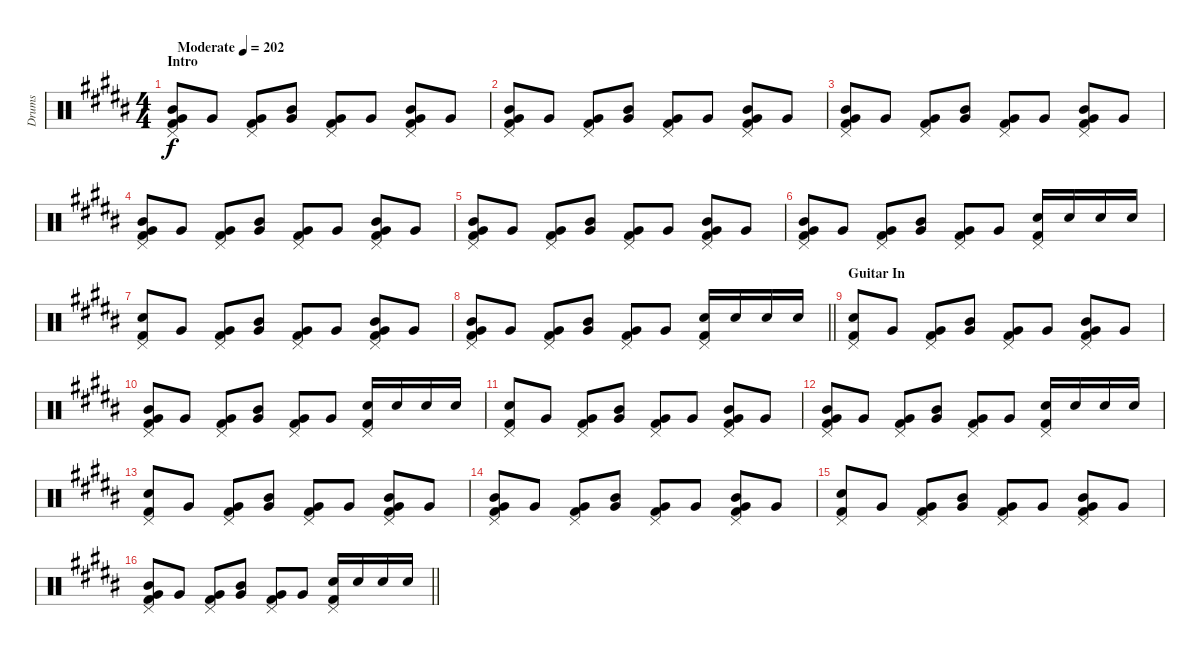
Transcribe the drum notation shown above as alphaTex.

\track ("Drums" "Drums") {instrument percussion}
\staff {score}
\articulation defaults
\ts (4 4)
\section ("" "Intro")
\tempo (202 "Moderate")
\clef neutral
\ks g#minor
("Pedal Hi-Hat (hit)" "Mid Tom (hit)" "Very Low Tom (hit)" "Kick (hit) 2").8{dy f} "Very Low Tom (hit)".8 ("Pedal Hi-Hat (hit)" "Very Low Tom (hit)" "Kick (hit) 2").8 ("Mid Tom (hit)" "Very Low Tom (hit)").8 ("Pedal Hi-Hat (hit)" "Very Low Tom (hit)" "Kick (hit) 2").8 "Very Low Tom (hit)".8 ("Pedal Hi-Hat (hit)" "Mid Tom (hit)" "Very Low Tom (hit)" "Kick (hit) 2").8 "Very Low Tom (hit)".8 |
("Pedal Hi-Hat (hit)" "Mid Tom (hit)" "Very Low Tom (hit)" "Kick (hit) 2").8 "Very Low Tom (hit)".8 ("Pedal Hi-Hat (hit)" "Very Low Tom (hit)" "Kick (hit) 2").8 ("Mid Tom (hit)" "Very Low Tom (hit)").8 ("Pedal Hi-Hat (hit)" "Very Low Tom (hit)" "Kick (hit) 2").8 "Very Low Tom (hit)".8 ("Pedal Hi-Hat (hit)" "Mid Tom (hit)" "Very Low Tom (hit)" "Kick (hit) 2").8 "Very Low Tom (hit)".8 |
("Pedal Hi-Hat (hit)" "Mid Tom (hit)" "Very Low Tom (hit)" "Kick (hit) 2").8 "Very Low Tom (hit)".8 ("Pedal Hi-Hat (hit)" "Very Low Tom (hit)" "Kick (hit) 2").8 ("Mid Tom (hit)" "Very Low Tom (hit)").8 ("Pedal Hi-Hat (hit)" "Very Low Tom (hit)" "Kick (hit) 2").8 "Very Low Tom (hit)".8 ("Pedal Hi-Hat (hit)" "Mid Tom (hit)" "Very Low Tom (hit)" "Kick (hit) 2").8 "Very Low Tom (hit)".8 |
("Pedal Hi-Hat (hit)" "Mid Tom (hit)" "Very Low Tom (hit)" "Kick (hit) 2").8 "Very Low Tom (hit)".8 ("Pedal Hi-Hat (hit)" "Very Low Tom (hit)" "Kick (hit) 2").8 ("Mid Tom (hit)" "Very Low Tom (hit)").8 ("Pedal Hi-Hat (hit)" "Very Low Tom (hit)" "Kick (hit) 2").8 "Very Low Tom (hit)".8 ("Pedal Hi-Hat (hit)" "Mid Tom (hit)" "Very Low Tom (hit)" "Kick (hit) 2").8 "Very Low Tom (hit)".8 |
("Pedal Hi-Hat (hit)" "Mid Tom (hit)" "Very Low Tom (hit)" "Kick (hit) 2").8 "Very Low Tom (hit)".8 ("Pedal Hi-Hat (hit)" "Very Low Tom (hit)" "Kick (hit) 2").8 ("Mid Tom (hit)" "Very Low Tom (hit)").8 ("Pedal Hi-Hat (hit)" "Very Low Tom (hit)" "Kick (hit) 2").8 "Very Low Tom (hit)".8 ("Pedal Hi-Hat (hit)" "Mid Tom (hit)" "Very Low Tom (hit)" "Kick (hit) 2").8 "Very Low Tom (hit)".8 |
("Pedal Hi-Hat (hit)" "Mid Tom (hit)" "Very Low Tom (hit)" "Kick (hit) 2").8 "Very Low Tom (hit)".8 ("Pedal Hi-Hat (hit)" "Very Low Tom (hit)" "Kick (hit) 2").8 ("Mid Tom (hit)" "Very Low Tom (hit)").8 ("Pedal Hi-Hat (hit)" "Very Low Tom (hit)" "Kick (hit) 2").8 "Very Low Tom (hit)".8 ("Pedal Hi-Hat (hit)" "Electric Snare (hit)" "Kick (hit) 2").16 "Electric Snare (hit)".16 "Electric Snare (hit)".16 "Electric Snare (hit)".16 |
("Pedal Hi-Hat (hit)" "Electric Snare (hit)" "Kick (hit) 2").8 "Very Low Tom (hit)".8 ("Pedal Hi-Hat (hit)" "Very Low Tom (hit)" "Kick (hit) 2").8 ("Mid Tom (hit)" "Very Low Tom (hit)").8 ("Pedal Hi-Hat (hit)" "Very Low Tom (hit)" "Kick (hit) 2").8 "Very Low Tom (hit)".8 ("Pedal Hi-Hat (hit)" "Mid Tom (hit)" "Very Low Tom (hit)" "Kick (hit) 2").8 "Very Low Tom (hit)".8 |
\barLineRight lightlight
("Pedal Hi-Hat (hit)" "Mid Tom (hit)" "Very Low Tom (hit)" "Kick (hit) 2").8 "Very Low Tom (hit)".8 ("Pedal Hi-Hat (hit)" "Very Low Tom (hit)" "Kick (hit) 2").8 ("Mid Tom (hit)" "Very Low Tom (hit)").8 ("Pedal Hi-Hat (hit)" "Very Low Tom (hit)" "Kick (hit) 2").8 "Very Low Tom (hit)".8 ("Pedal Hi-Hat (hit)" "Electric Snare (hit)" "Kick (hit) 2").16 "Electric Snare (hit)".16 "Electric Snare (hit)".16 "Electric Snare (hit)".16 |
\section ("" "Guitar In")
("Pedal Hi-Hat (hit)" "Electric Snare (hit)" "Kick (hit) 2").8 "Very Low Tom (hit)".8 ("Pedal Hi-Hat (hit)" "Very Low Tom (hit)" "Kick (hit) 2").8 ("Mid Tom (hit)" "Very Low Tom (hit)").8 ("Pedal Hi-Hat (hit)" "Very Low Tom (hit)" "Kick (hit) 2").8 "Very Low Tom (hit)".8 ("Pedal Hi-Hat (hit)" "Mid Tom (hit)" "Very Low Tom (hit)" "Kick (hit) 2").8 "Very Low Tom (hit)".8 |
("Pedal Hi-Hat (hit)" "Mid Tom (hit)" "Very Low Tom (hit)" "Kick (hit) 2").8 "Very Low Tom (hit)".8 ("Pedal Hi-Hat (hit)" "Very Low Tom (hit)" "Kick (hit) 2").8 ("Mid Tom (hit)" "Very Low Tom (hit)").8 ("Pedal Hi-Hat (hit)" "Very Low Tom (hit)" "Kick (hit) 2").8 "Very Low Tom (hit)".8 ("Pedal Hi-Hat (hit)" "Electric Snare (hit)" "Kick (hit) 2").16 "Electric Snare (hit)".16 "Electric Snare (hit)".16 "Electric Snare (hit)".16 |
("Pedal Hi-Hat (hit)" "Electric Snare (hit)" "Kick (hit) 2").8 "Very Low Tom (hit)".8 ("Pedal Hi-Hat (hit)" "Very Low Tom (hit)" "Kick (hit) 2").8 ("Mid Tom (hit)" "Very Low Tom (hit)").8 ("Pedal Hi-Hat (hit)" "Very Low Tom (hit)" "Kick (hit) 2").8 "Very Low Tom (hit)".8 ("Pedal Hi-Hat (hit)" "Mid Tom (hit)" "Very Low Tom (hit)" "Kick (hit) 2").8 "Very Low Tom (hit)".8 |
("Pedal Hi-Hat (hit)" "Mid Tom (hit)" "Very Low Tom (hit)" "Kick (hit) 2").8 "Very Low Tom (hit)".8 ("Pedal Hi-Hat (hit)" "Very Low Tom (hit)" "Kick (hit) 2").8 ("Mid Tom (hit)" "Very Low Tom (hit)").8 ("Pedal Hi-Hat (hit)" "Very Low Tom (hit)" "Kick (hit) 2").8 "Very Low Tom (hit)".8 ("Pedal Hi-Hat (hit)" "Electric Snare (hit)" "Kick (hit) 2").16 "Electric Snare (hit)".16 "Electric Snare (hit)".16 "Electric Snare (hit)".16 |
("Pedal Hi-Hat (hit)" "Electric Snare (hit)" "Kick (hit) 2").8 "Very Low Tom (hit)".8 ("Pedal Hi-Hat (hit)" "Very Low Tom (hit)" "Kick (hit) 2").8 ("Mid Tom (hit)" "Very Low Tom (hit)").8 ("Pedal Hi-Hat (hit)" "Very Low Tom (hit)" "Kick (hit) 2").8 "Very Low Tom (hit)".8 ("Pedal Hi-Hat (hit)" "Mid Tom (hit)" "Very Low Tom (hit)" "Kick (hit) 2").8 "Very Low Tom (hit)".8 |
("Pedal Hi-Hat (hit)" "Mid Tom (hit)" "Very Low Tom (hit)" "Kick (hit) 2").8 "Very Low Tom (hit)".8 ("Pedal Hi-Hat (hit)" "Very Low Tom (hit)" "Kick (hit) 2").8 ("Mid Tom (hit)" "Very Low Tom (hit)").8 ("Pedal Hi-Hat (hit)" "Very Low Tom (hit)" "Kick (hit) 2").8 "Very Low Tom (hit)".8 ("Pedal Hi-Hat (hit)" "Mid Tom (hit)" "Very Low Tom (hit)" "Kick (hit) 2").8 "Very Low Tom (hit)".8 |
("Pedal Hi-Hat (hit)" "Electric Snare (hit)" "Kick (hit) 2").8 "Very Low Tom (hit)".8 ("Pedal Hi-Hat (hit)" "Very Low Tom (hit)" "Kick (hit) 2").8 ("Mid Tom (hit)" "Very Low Tom (hit)").8 ("Pedal Hi-Hat (hit)" "Very Low Tom (hit)" "Kick (hit) 2").8 "Very Low Tom (hit)".8 ("Pedal Hi-Hat (hit)" "Mid Tom (hit)" "Very Low Tom (hit)" "Kick (hit) 2").8 "Very Low Tom (hit)".8 |
\barLineRight lightlight
("Pedal Hi-Hat (hit)" "Mid Tom (hit)" "Very Low Tom (hit)" "Kick (hit) 2").8 "Very Low Tom (hit)".8 ("Pedal Hi-Hat (hit)" "Very Low Tom (hit)" "Kick (hit) 2").8 ("Mid Tom (hit)" "Very Low Tom (hit)").8 ("Pedal Hi-Hat (hit)" "Very Low Tom (hit)" "Kick (hit) 2").8 "Very Low Tom (hit)".8 ("Pedal Hi-Hat (hit)" "Electric Snare (hit)" "Kick (hit) 2").16 "Electric Snare (hit)".16 "Electric Snare (hit)".16 "Electric Snare (hit)".16
